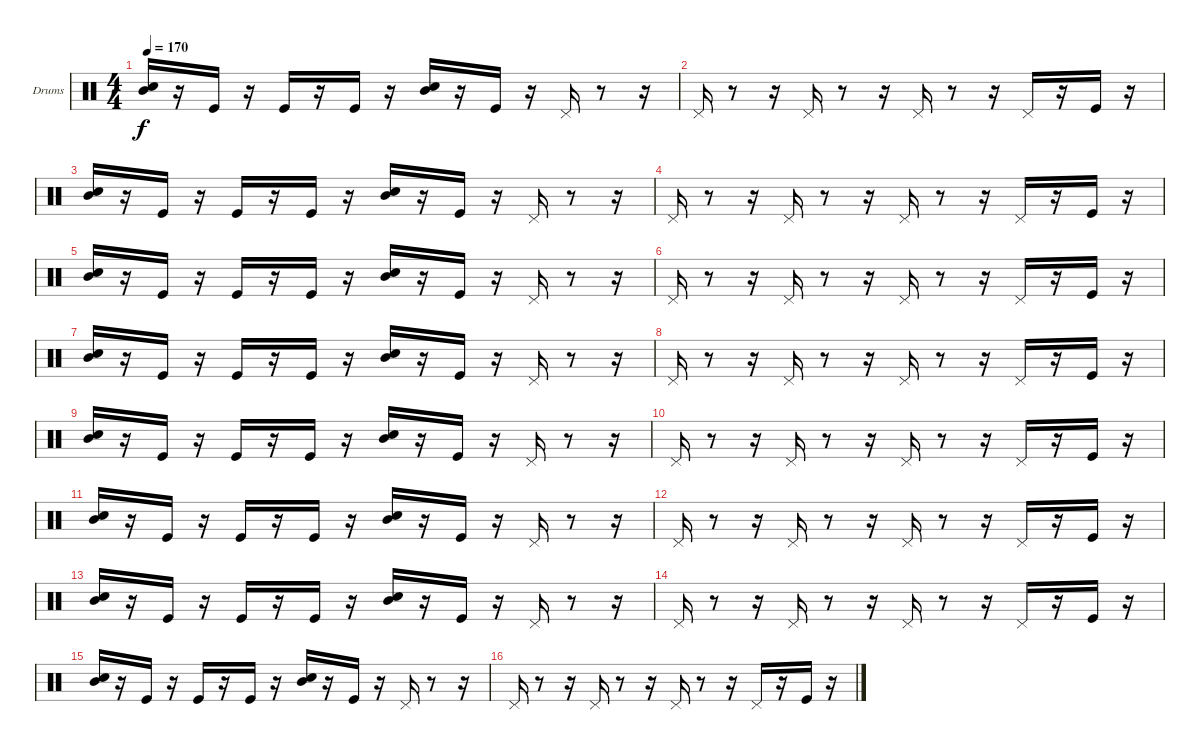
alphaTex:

\bracketExtendMode groupsimilarinstruments
\firstSystemTrackNameOrientation horizontal
\otherSystemsTrackNameOrientation horizontal
\track ("Thomas" "Drums") {instrument percussion}
\staff {score}
\articulation defaults
\ts (4 4)
\tempo 170
\clef neutral
\ks c
("Snare (hit) 2" "Mid Tom (hit)").16{dy f} r.16 "Kick (hit)".16 r.16 "Kick (hit)".16 r.16 "Kick (hit)".16 r.16 ("Snare (hit) 2" "Mid Tom (hit)").16 r.16 "Kick (hit)".16 r.16 "Pedal Hi-Hat (hit)".16 r.8 r.16 |
"Pedal Hi-Hat (hit)".16 r.8 r.16 "Pedal Hi-Hat (hit)".16 r.8 r.16 "Pedal Hi-Hat (hit)".16 r.8 r.16 "Pedal Hi-Hat (hit)".16 r.16 "Kick (hit)".16 r.16 |
("Snare (hit) 2" "Mid Tom (hit)").16 r.16 "Kick (hit)".16 r.16 "Kick (hit)".16 r.16 "Kick (hit)".16 r.16 ("Snare (hit) 2" "Mid Tom (hit)").16 r.16 "Kick (hit)".16 r.16 "Pedal Hi-Hat (hit)".16 r.8 r.16 |
"Pedal Hi-Hat (hit)".16 r.8 r.16 "Pedal Hi-Hat (hit)".16 r.8 r.16 "Pedal Hi-Hat (hit)".16 r.8 r.16 "Pedal Hi-Hat (hit)".16 r.16 "Kick (hit)".16 r.16 |
("Snare (hit) 2" "Mid Tom (hit)").16 r.16 "Kick (hit)".16 r.16 "Kick (hit)".16 r.16 "Kick (hit)".16 r.16 ("Snare (hit) 2" "Mid Tom (hit)").16 r.16 "Kick (hit)".16 r.16 "Pedal Hi-Hat (hit)".16 r.8 r.16 |
"Pedal Hi-Hat (hit)".16 r.8 r.16 "Pedal Hi-Hat (hit)".16 r.8 r.16 "Pedal Hi-Hat (hit)".16 r.8 r.16 "Pedal Hi-Hat (hit)".16 r.16 "Kick (hit)".16 r.16 |
("Snare (hit) 2" "Mid Tom (hit)").16 r.16 "Kick (hit)".16 r.16 "Kick (hit)".16 r.16 "Kick (hit)".16 r.16 ("Snare (hit) 2" "Mid Tom (hit)").16 r.16 "Kick (hit)".16 r.16 "Pedal Hi-Hat (hit)".16 r.8 r.16 |
"Pedal Hi-Hat (hit)".16 r.8 r.16 "Pedal Hi-Hat (hit)".16 r.8 r.16 "Pedal Hi-Hat (hit)".16 r.8 r.16 "Pedal Hi-Hat (hit)".16 r.16 "Kick (hit)".16 r.16 |
("Snare (hit) 2" "Mid Tom (hit)").16 r.16 "Kick (hit)".16 r.16 "Kick (hit)".16 r.16 "Kick (hit)".16 r.16 ("Snare (hit) 2" "Mid Tom (hit)").16 r.16 "Kick (hit)".16 r.16 "Pedal Hi-Hat (hit)".16 r.8 r.16 |
"Pedal Hi-Hat (hit)".16 r.8 r.16 "Pedal Hi-Hat (hit)".16 r.8 r.16 "Pedal Hi-Hat (hit)".16 r.8 r.16 "Pedal Hi-Hat (hit)".16 r.16 "Kick (hit)".16 r.16 |
("Snare (hit) 2" "Mid Tom (hit)").16 r.16 "Kick (hit)".16 r.16 "Kick (hit)".16 r.16 "Kick (hit)".16 r.16 ("Snare (hit) 2" "Mid Tom (hit)").16 r.16 "Kick (hit)".16 r.16 "Pedal Hi-Hat (hit)".16 r.8 r.16 |
"Pedal Hi-Hat (hit)".16 r.8 r.16 "Pedal Hi-Hat (hit)".16 r.8 r.16 "Pedal Hi-Hat (hit)".16 r.8 r.16 "Pedal Hi-Hat (hit)".16 r.16 "Kick (hit)".16 r.16 |
("Snare (hit) 2" "Mid Tom (hit)").16 r.16 "Kick (hit)".16 r.16 "Kick (hit)".16 r.16 "Kick (hit)".16 r.16 ("Snare (hit) 2" "Mid Tom (hit)").16 r.16 "Kick (hit)".16 r.16 "Pedal Hi-Hat (hit)".16 r.8 r.16 |
"Pedal Hi-Hat (hit)".16 r.8 r.16 "Pedal Hi-Hat (hit)".16 r.8 r.16 "Pedal Hi-Hat (hit)".16 r.8 r.16 "Pedal Hi-Hat (hit)".16 r.16 "Kick (hit)".16 r.16 |
("Snare (hit) 2" "Mid Tom (hit)").16 r.16 "Kick (hit)".16 r.16 "Kick (hit)".16 r.16 "Kick (hit)".16 r.16 ("Snare (hit) 2" "Mid Tom (hit)").16 r.16 "Kick (hit)".16 r.16 "Pedal Hi-Hat (hit)".16 r.8 r.16 |
"Pedal Hi-Hat (hit)".16 r.8 r.16 "Pedal Hi-Hat (hit)".16 r.8 r.16 "Pedal Hi-Hat (hit)".16 r.8 r.16 "Pedal Hi-Hat (hit)".16 r.16 "Kick (hit)".16 r.16
